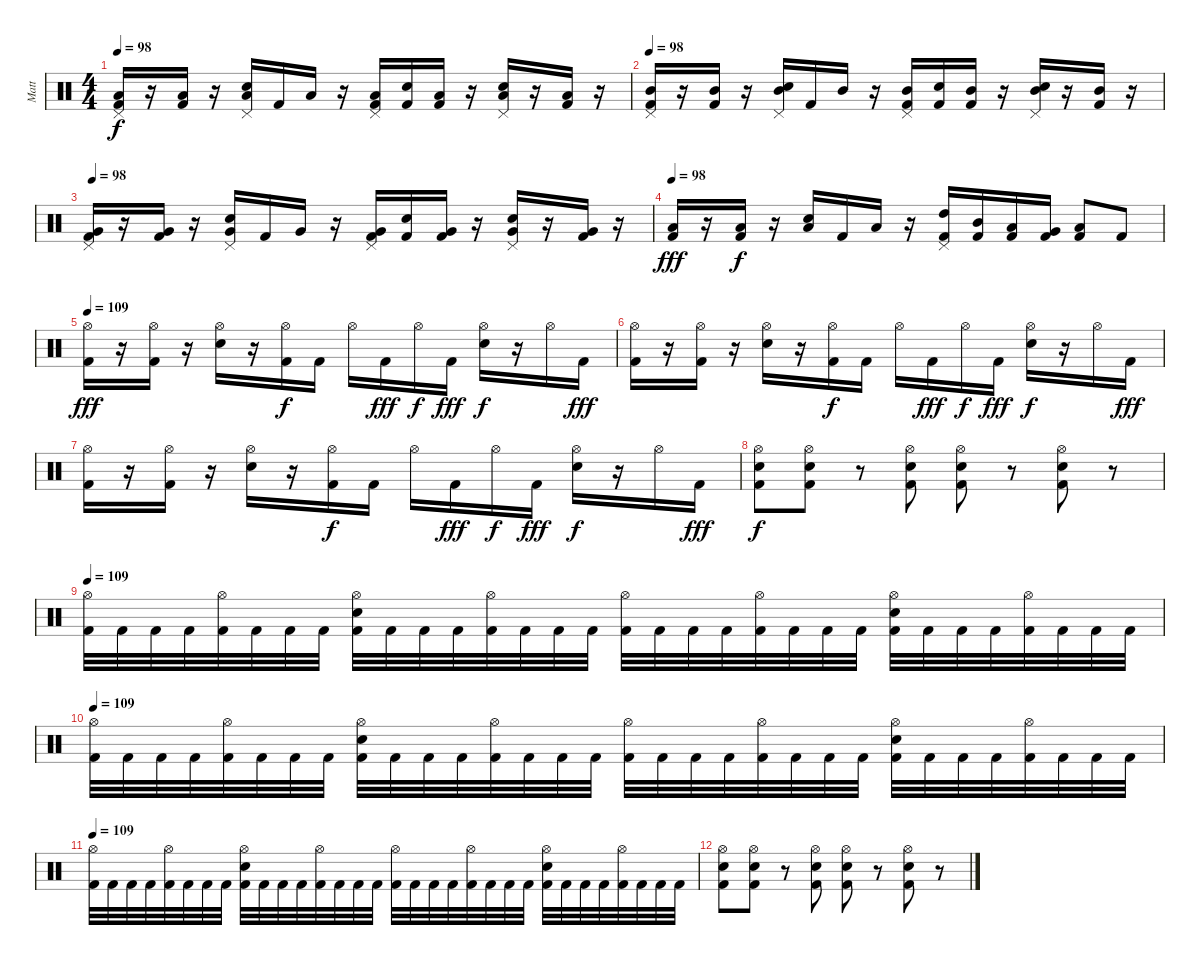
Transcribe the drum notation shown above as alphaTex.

\track ("Matt" "Matt") {instrument percussion}
\staff {score}
\articulation defaults
\ts (4 4)
\tempo 98
\clef neutral
\ks c
("Pedal Hi-Hat (hit)" "Low Tom (hit)" "Kick (hit) 2").16{dy f} r.16 ("Low Tom (hit)" "Kick (hit) 2").16 r.16 ("Pedal Hi-Hat (hit)" "Low Tom (hit)" "Snare (hit) 2").16 "Kick (hit) 2".16 "Low Tom (hit)".16 r.16 ("Pedal Hi-Hat (hit)" "Low Tom (hit)" "Kick (hit) 2").16 ("Snare (hit) 2" "Kick (hit) 2").16 ("Low Tom (hit)" "Kick (hit) 2").16 r.16 ("Pedal Hi-Hat (hit)" "Low Tom (hit)" "Snare (hit) 2").16 r.16 ("Low Tom (hit)" "Kick (hit) 2").16 r.16 |
\tempo 98
("Pedal Hi-Hat (hit)" "Mid Tom (hit)" "Kick (hit) 2").16 r.16 ("Mid Tom (hit)" "Kick (hit) 2").16 r.16 ("Pedal Hi-Hat (hit)" "Mid Tom (hit)" "Snare (hit) 2").16 "Kick (hit) 2".16 "Mid Tom (hit)".16 r.16 ("Pedal Hi-Hat (hit)" "Mid Tom (hit)" "Kick (hit) 2").16 ("Snare (hit) 2" "Kick (hit) 2").16 ("Mid Tom (hit)" "Kick (hit) 2").16 r.16 ("Pedal Hi-Hat (hit)" "Mid Tom (hit)" "Snare (hit) 2").16 r.16 ("Mid Tom (hit)" "Kick (hit) 2").16 r.16 |
\tempo 98
("Pedal Hi-Hat (hit)" "Very Low Tom (hit)" "Kick (hit) 2").16 r.16 ("Very Low Tom (hit)" "Kick (hit) 2").16 r.16 ("Pedal Hi-Hat (hit)" "Very Low Tom (hit)" "Snare (hit) 2").16 "Kick (hit) 2".16 "Very Low Tom (hit)".16 r.16 ("Pedal Hi-Hat (hit)" "Very Low Tom (hit)" "Kick (hit) 2").16 ("Snare (hit) 2" "Kick (hit) 2").16 ("Very Low Tom (hit)" "Kick (hit) 2").16 r.16 ("Pedal Hi-Hat (hit)" "Very Low Tom (hit)" "Snare (hit) 2").16 r.16 ("Very Low Tom (hit)" "Kick (hit) 2").16 r.16 |
\tempo 98
("Low Floor Tom (hit)" "Kick (hit) 2").16{dy fff} r.16 ("Low Floor Tom (hit)" "Kick (hit) 2").16{dy f} r.16 ("Low Floor Tom (hit)" "Snare (hit) 2").16 "Kick (hit) 2".16 "Low Floor Tom (hit)".16 r.16 ("Pedal Hi-Hat (hit)" "High Tom (hit)" "Kick (hit) 2").16 ("Mid Tom (hit)" "Kick (hit) 2").16 ("Low Tom (hit)" "Kick (hit) 2").16 ("Very Low Tom (hit)" "Kick (hit) 2").16 ("Low Floor Tom (hit)" "Kick (hit) 2").8 "Kick (hit) 2".8 |
\tempo 109
("Hi-Hat (open)" "Kick (hit) 2").16{dy fff} r.16 ("Hi-Hat (open)" "Kick (hit) 2").16 r.16 ("Hi-Hat (open)" "Snare (hit) 2").16 r.16 ("Hi-Hat (open)" "Kick (hit) 2").16{dy f} "Kick (hit) 2".16 "Hi-Hat (open)".16 "Kick (hit) 2".16{dy fff} "Hi-Hat (open)".16{dy f} "Kick (hit) 2".16{dy fff} ("Hi-Hat (open)" "Snare (hit) 2").16{dy f} r.16 "Hi-Hat (open)".16 "Kick (hit) 2".16{dy fff} |
("Hi-Hat (open)" "Kick (hit) 2").16 r.16 ("Hi-Hat (open)" "Kick (hit) 2").16 r.16 ("Hi-Hat (open)" "Snare (hit) 2").16 r.16 ("Hi-Hat (open)" "Kick (hit) 2").16{dy f} "Kick (hit) 2".16 "Hi-Hat (open)".16 "Kick (hit) 2".16{dy fff} "Hi-Hat (open)".16{dy f} "Kick (hit) 2".16{dy fff} ("Hi-Hat (open)" "Snare (hit) 2").16{dy f} r.16 "Hi-Hat (open)".16 "Kick (hit) 2".16{dy fff} |
("Hi-Hat (open)" "Kick (hit) 2").16 r.16 ("Hi-Hat (open)" "Kick (hit) 2").16 r.16 ("Hi-Hat (open)" "Snare (hit) 2").16 r.16 ("Hi-Hat (open)" "Kick (hit) 2").16{dy f} "Kick (hit) 2".16 "Hi-Hat (open)".16 "Kick (hit) 2".16{dy fff} "Hi-Hat (open)".16{dy f} "Kick (hit) 2".16{dy fff} ("Hi-Hat (open)" "Snare (hit) 2").16{dy f} r.16 "Hi-Hat (open)".16 "Kick (hit) 2".16{dy fff} |
("Hi-Hat (open)" "Snare (hit) 2" "Kick (hit) 2").8{dy f} ("Hi-Hat (open)" "Snare (hit) 2" "Kick (hit) 2").8 r.8 ("Hi-Hat (open)" "Snare (hit) 2" "Kick (hit) 2").8 ("Hi-Hat (open)" "Snare (hit) 2" "Kick (hit) 2").8 r.8 ("Hi-Hat (open)" "Snare (hit) 2" "Kick (hit) 2").8 r.8 |
\tempo 109
("Hi-Hat (open)" "Kick (hit) 2").32 "Kick (hit) 2".32 "Kick (hit) 2".32 "Kick (hit) 2".32 ("Hi-Hat (open)" "Kick (hit) 2").32 "Kick (hit) 2".32 "Kick (hit) 2".32 "Kick (hit) 2".32 ("Hi-Hat (open)" "Snare (hit) 2" "Kick (hit) 2").32 "Kick (hit) 2".32 "Kick (hit) 2".32 "Kick (hit) 2".32 ("Hi-Hat (open)" "Kick (hit) 2").32 "Kick (hit) 2".32 "Kick (hit) 2".32 "Kick (hit) 2".32 ("Hi-Hat (open)" "Kick (hit) 2").32 "Kick (hit) 2".32 "Kick (hit) 2".32 "Kick (hit) 2".32 ("Hi-Hat (open)" "Kick (hit) 2").32 "Kick (hit) 2".32 "Kick (hit) 2".32 "Kick (hit) 2".32 ("Hi-Hat (open)" "Snare (hit) 2" "Kick (hit) 2").32 "Kick (hit) 2".32 "Kick (hit) 2".32 "Kick (hit) 2".32 ("Hi-Hat (open)" "Kick (hit) 2").32 "Kick (hit) 2".32 "Kick (hit) 2".32 "Kick (hit) 2".32 |
\tempo 109
("Hi-Hat (open)" "Kick (hit) 2").32 "Kick (hit) 2".32 "Kick (hit) 2".32 "Kick (hit) 2".32 ("Hi-Hat (open)" "Kick (hit) 2").32 "Kick (hit) 2".32 "Kick (hit) 2".32 "Kick (hit) 2".32 ("Hi-Hat (open)" "Snare (hit) 2" "Kick (hit) 2").32 "Kick (hit) 2".32 "Kick (hit) 2".32 "Kick (hit) 2".32 ("Hi-Hat (open)" "Kick (hit) 2").32 "Kick (hit) 2".32 "Kick (hit) 2".32 "Kick (hit) 2".32 ("Hi-Hat (open)" "Kick (hit) 2").32 "Kick (hit) 2".32 "Kick (hit) 2".32 "Kick (hit) 2".32 ("Hi-Hat (open)" "Kick (hit) 2").32 "Kick (hit) 2".32 "Kick (hit) 2".32 "Kick (hit) 2".32 ("Hi-Hat (open)" "Snare (hit) 2" "Kick (hit) 2").32 "Kick (hit) 2".32 "Kick (hit) 2".32 "Kick (hit) 2".32 ("Hi-Hat (open)" "Kick (hit) 2").32 "Kick (hit) 2".32 "Kick (hit) 2".32 "Kick (hit) 2".32 |
\tempo 109
("Hi-Hat (open)" "Kick (hit) 2").32 "Kick (hit) 2".32 "Kick (hit) 2".32 "Kick (hit) 2".32 ("Hi-Hat (open)" "Kick (hit) 2").32 "Kick (hit) 2".32 "Kick (hit) 2".32 "Kick (hit) 2".32 ("Hi-Hat (open)" "Snare (hit) 2" "Kick (hit) 2").32 "Kick (hit) 2".32 "Kick (hit) 2".32 "Kick (hit) 2".32 ("Hi-Hat (open)" "Kick (hit) 2").32 "Kick (hit) 2".32 "Kick (hit) 2".32 "Kick (hit) 2".32 ("Hi-Hat (open)" "Kick (hit) 2").32 "Kick (hit) 2".32 "Kick (hit) 2".32 "Kick (hit) 2".32 ("Hi-Hat (open)" "Kick (hit) 2").32 "Kick (hit) 2".32 "Kick (hit) 2".32 "Kick (hit) 2".32 ("Hi-Hat (open)" "Snare (hit) 2" "Kick (hit) 2").32 "Kick (hit) 2".32 "Kick (hit) 2".32 "Kick (hit) 2".32 ("Hi-Hat (open)" "Kick (hit) 2").32 "Kick (hit) 2".32 "Kick (hit) 2".32 "Kick (hit) 2".32 |
("Hi-Hat (open)" "Snare (hit) 2" "Kick (hit) 2").8 ("Hi-Hat (open)" "Snare (hit) 2" "Kick (hit) 2").8 r.8 ("Hi-Hat (open)" "Snare (hit) 2" "Kick (hit) 2").8 ("Hi-Hat (open)" "Snare (hit) 2" "Kick (hit) 2").8 r.8 ("Hi-Hat (open)" "Snare (hit) 2" "Kick (hit) 2").8 r.8
